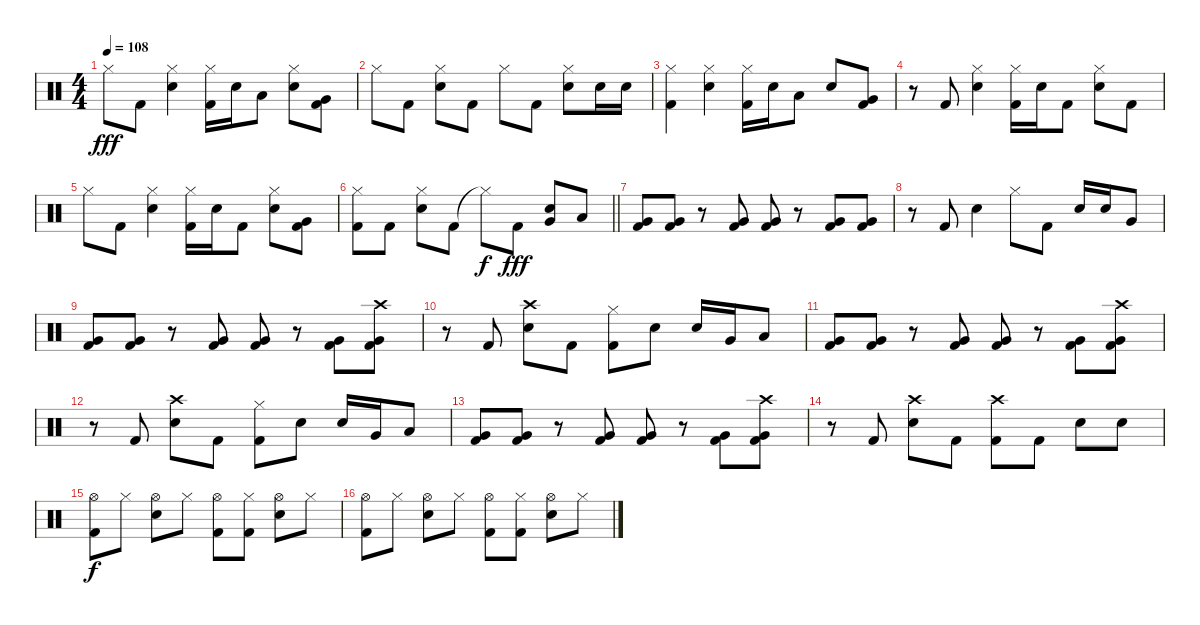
\track "" {instrument percussion}
\staff {score}
\articulation defaults
\ts (4 4)
\tempo 108
\clef neutral
\ks c "Hi-Hat (closed)".8{dy fff} "Kick (hit) 2".8
("Electric Snare (hit)" "Hi-Hat (closed)").4 ("Kick (hit) 2" "Hi-Hat (closed)").16 "Electric Snare (hit)".16 "Low Floor Tom (hit)".8 ("Electric Snare (hit)" "Hi-Hat (closed)").8 ("Very Low Tom (hit)" "Kick (hit) 2").8 |
"Hi-Hat (closed)".8 "Kick (hit) 2".8 ("Electric Snare (hit)" "Hi-Hat (closed)").8 "Kick (hit) 2".8 "Hi-Hat (closed)".8 "Kick (hit) 2".8 ("Electric Snare (hit)" "Hi-Hat (closed)").8 "Electric Snare (hit)".16 "Electric Snare (hit)".16 |
("Hi-Hat (closed)" "Kick (hit) 2").4 ("Hi-Hat (closed)" "Electric Snare (hit)").4 ("Kick (hit) 2" "Hi-Hat (closed)").16 "Electric Snare (hit)".16 "Low Floor Tom (hit)".8 "Electric Snare (hit)".8 ("Very Low Tom (hit)" "Kick (hit) 2").8 |
r.8 "Kick (hit) 2".8 ("Electric Snare (hit)" "Hi-Hat (closed)").4 ("Kick (hit) 2" "Hi-Hat (closed)").16 "Electric Snare (hit)".16 "Kick (hit) 2".8 ("Hi-Hat (closed)" "Electric Snare (hit)").8 "Kick (hit) 2".8 |
"Hi-Hat (closed)".8 "Kick (hit) 2".8 ("Electric Snare (hit)" "Hi-Hat (closed)").4 ("Kick (hit) 2" "Hi-Hat (closed)").16 "Electric Snare (hit)".16 "Kick (hit) 2".8 ("Electric Snare (hit)" "Hi-Hat (closed)").8 ("Very Low Tom (hit)" "Kick (hit) 2").8 |
\barLineRight lightlight
("Kick (hit) 2" "Hi-Hat (closed)").8 "Kick (hit) 2".8 ("Electric Snare (hit)" "Hi-Hat (closed)").8 "Kick (hit) 2".8 "Hi-Hat (closed)"{t}.8{dy f} "Kick (hit) 2".8{dy fff} ("Very Low Tom (hit)" "Electric Snare (hit)").8 "Low Floor Tom (hit)".8 |
\section ("" "")
("Very Low Tom (hit)" "Kick (hit) 2").8 ("Very Low Tom (hit)" "Kick (hit) 2").8 r.8 ("Very Low Tom (hit)" "Kick (hit) 2").8 ("Very Low Tom (hit)" "Kick (hit) 2").8 r.8 ("Very Low Tom (hit)" "Kick (hit) 2").8 ("Very Low Tom (hit)" "Kick (hit) 2").8 |
r.8 "Kick (hit) 2".8 "Electric Snare (hit)".4 "Hi-Hat (closed)".8 "Kick (hit) 2".8 "Electric Snare (hit)".16 "Electric Snare (hit)".16 "Very Low Tom (hit)".8 |
("Very Low Tom (hit)" "Kick (hit) 2").8 ("Very Low Tom (hit)" "Kick (hit) 2").8 r.8 ("Very Low Tom (hit)" "Kick (hit) 2").8 ("Very Low Tom (hit)" "Kick (hit) 2").8 r.8 ("Very Low Tom (hit)" "Kick (hit) 2").8 ("Crash high (hit)" "Very Low Tom (hit)" "Kick (hit) 2").8 |
r.8 "Kick (hit) 2".8 ("Electric Snare (hit)" "Crash high (hit)").8 "Kick (hit) 2".8 ("Kick (hit) 2" "Hi-Hat (closed)").8 "Electric Snare (hit)".8 "Electric Snare (hit)".16 "Very Low Tom (hit)".16 "Low Floor Tom (hit)".8 |
("Very Low Tom (hit)" "Kick (hit) 2").8 ("Very Low Tom (hit)" "Kick (hit) 2").8 r.8 ("Very Low Tom (hit)" "Kick (hit) 2").8 ("Very Low Tom (hit)" "Kick (hit) 2").8 r.8 ("Very Low Tom (hit)" "Kick (hit) 2").8 ("Crash high (hit)" "Very Low Tom (hit)" "Kick (hit) 2").8 |
r.8 "Kick (hit) 2".8 ("Electric Snare (hit)" "Crash high (hit)").8 "Kick (hit) 2".8 ("Kick (hit) 2" "Hi-Hat (closed)").8 "Electric Snare (hit)".8 "Electric Snare (hit)".16 "Very Low Tom (hit)".16 "Low Floor Tom (hit)".8 |
("Very Low Tom (hit)" "Kick (hit) 2").8 ("Very Low Tom (hit)" "Kick (hit) 2").8 r.8 ("Very Low Tom (hit)" "Kick (hit) 2").8 ("Very Low Tom (hit)" "Kick (hit) 2").8 r.8 ("Very Low Tom (hit)" "Kick (hit) 2").8 ("Crash high (hit)" "Very Low Tom (hit)" "Kick (hit) 2").8 |
r.8 "Kick (hit) 2".8 ("Electric Snare (hit)" "Crash high (hit)").8 "Kick (hit) 2".8 ("Kick (hit) 2" "Crash high (hit)").8 "Kick (hit) 2".8 "Electric Snare (hit)".8 "Electric Snare (hit)".8 |
("Kick (hit) 2" "Hi-Hat (open)").8{dy f} "Hi-Hat (closed)".8 ("Electric Snare (hit)" "Hi-Hat (open)").8 "Hi-Hat (closed)".8 ("Kick (hit) 2" "Hi-Hat (open)").8 ("Hi-Hat (closed)" "Kick (hit) 2").8 ("Electric Snare (hit)" "Hi-Hat (open)").8 "Hi-Hat (closed)".8 |
("Kick (hit) 2" "Hi-Hat (open)").8 "Hi-Hat (closed)".8 ("Electric Snare (hit)" "Hi-Hat (open)").8 "Hi-Hat (closed)".8 ("Kick (hit) 2" "Hi-Hat (open)").8 ("Hi-Hat (closed)" "Kick (hit) 2").8 ("Electric Snare (hit)" "Hi-Hat (open)").8 "Hi-Hat (closed)".8
